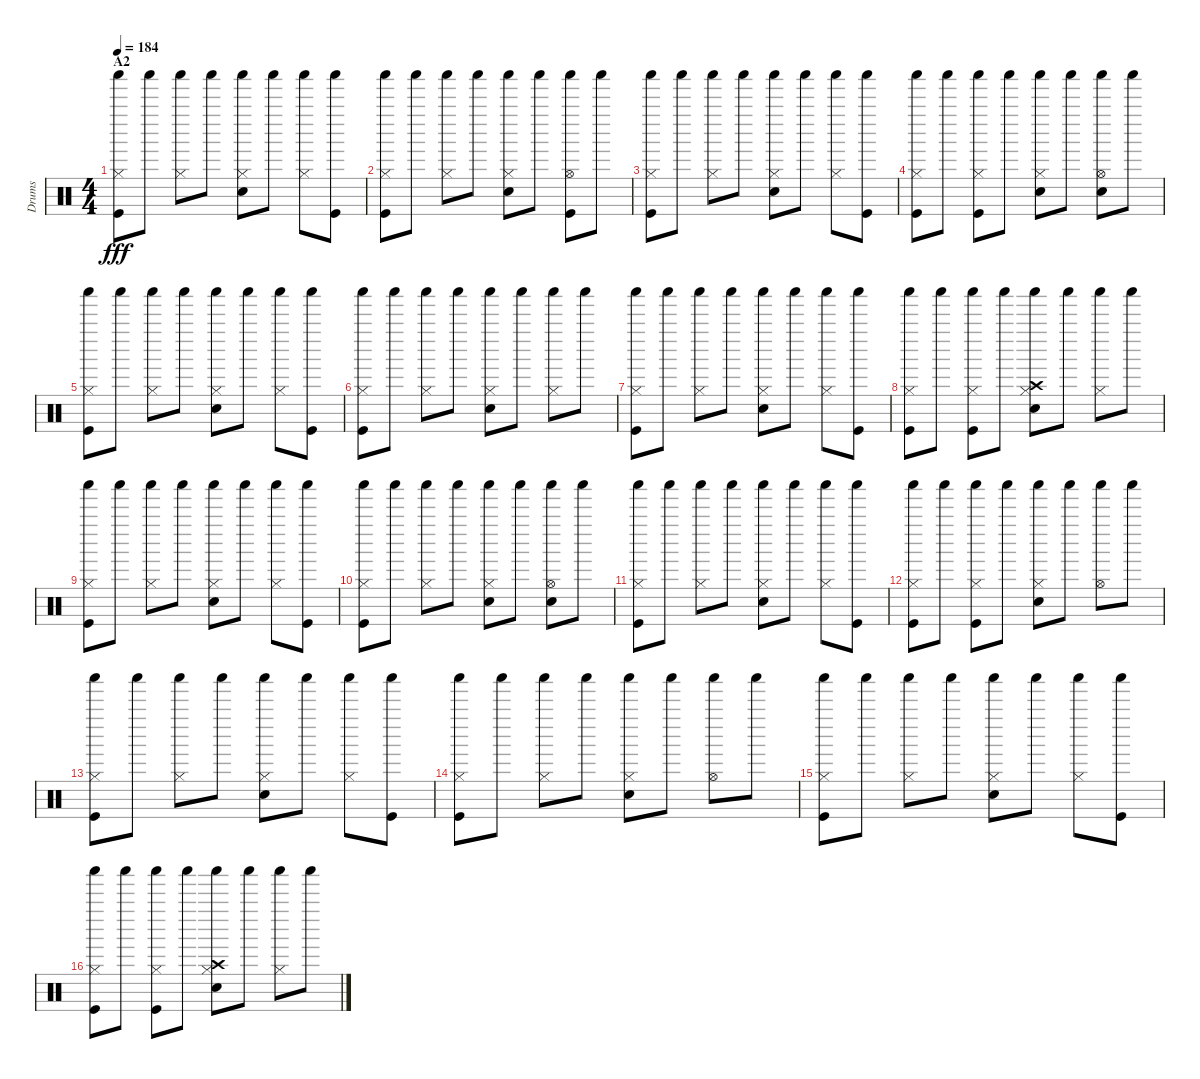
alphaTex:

\track ("Drums" "Drums") {instrument percussion}
\staff {score}
\articulation defaults
\ts (4 4)
\section ("" "A2")
\tempo 184
\clef neutral
\ks c
("Hi-Hat (closed)" "Shaker (hit)" "Kick (hit)").8{dy fff} "Shaker (hit)".8 ("Hi-Hat (closed)" "Shaker (hit)").8 "Shaker (hit)".8 ("Hi-Hat (closed)" "Shaker (hit)" "Snare (hit) 2").8 "Shaker (hit)".8 ("Hi-Hat (closed)" "Shaker (hit)").8 ("Shaker (hit)" "Kick (hit)").8 |
("Hi-Hat (closed)" "Shaker (hit)" "Kick (hit)").8 "Shaker (hit)".8 ("Hi-Hat (closed)" "Shaker (hit)").8 "Shaker (hit)".8 ("Hi-Hat (closed)" "Shaker (hit)" "Snare (hit) 2").8 "Shaker (hit)".8 ("Hi-Hat (open)" "Shaker (hit)" "Kick (hit)").8 "Shaker (hit)".8 |
("Hi-Hat (closed)" "Shaker (hit)" "Kick (hit)").8 "Shaker (hit)".8 ("Hi-Hat (closed)" "Shaker (hit)").8 "Shaker (hit)".8 ("Hi-Hat (closed)" "Shaker (hit)" "Snare (hit) 2").8 "Shaker (hit)".8 ("Hi-Hat (closed)" "Shaker (hit)").8 ("Shaker (hit)" "Kick (hit)").8 |
("Hi-Hat (closed)" "Shaker (hit)" "Kick (hit)").8 "Shaker (hit)".8 ("Hi-Hat (closed)" "Shaker (hit)" "Kick (hit)").8 "Shaker (hit)".8 ("Hi-Hat (closed)" "Shaker (hit)" "Snare (hit) 2").8 "Shaker (hit)".8 ("Hi-Hat (open)" "Shaker (hit)" "Snare (hit) 2").8 "Shaker (hit)".8 |
("Hi-Hat (closed)" "Shaker (hit)" "Kick (hit)").8 "Shaker (hit)".8 ("Hi-Hat (closed)" "Shaker (hit)").8 "Shaker (hit)".8 ("Hi-Hat (closed)" "Shaker (hit)" "Snare (hit) 2").8 "Shaker (hit)".8 ("Hi-Hat (closed)" "Shaker (hit)").8 ("Shaker (hit)" "Kick (hit)").8 |
("Hi-Hat (closed)" "Shaker (hit)" "Kick (hit)").8 "Shaker (hit)".8 ("Hi-Hat (closed)" "Shaker (hit)").8 "Shaker (hit)".8 ("Hi-Hat (closed)" "Shaker (hit)" "Snare (hit) 2").8 "Shaker (hit)".8 ("Hi-Hat (closed)" "Shaker (hit)").8 "Shaker (hit)".8 |
("Hi-Hat (closed)" "Shaker (hit)" "Kick (hit)").8 "Shaker (hit)".8 ("Hi-Hat (closed)" "Shaker (hit)").8 "Shaker (hit)".8 ("Hi-Hat (closed)" "Shaker (hit)" "Snare (hit) 2").8 "Shaker (hit)".8 ("Hi-Hat (closed)" "Shaker (hit)").8 ("Shaker (hit)" "Kick (hit)").8 |
("Hi-Hat (closed)" "Shaker (hit)" "Kick (hit)").8 "Shaker (hit)".8 ("Hi-Hat (closed)" "Shaker (hit)" "Kick (hit)").8 "Shaker (hit)".8 ("Hi-Hat (closed)" "Shaker (hit)" "Crash high (hit)" "Snare (hit) 2").8 "Shaker (hit)".8 ("Hi-Hat (closed)" "Shaker (hit)").8 "Shaker (hit)".8 |
("Hi-Hat (closed)" "Shaker (hit)" "Kick (hit)").8 "Shaker (hit)".8 ("Hi-Hat (closed)" "Shaker (hit)").8 "Shaker (hit)".8 ("Hi-Hat (closed)" "Shaker (hit)" "Snare (hit) 2").8 "Shaker (hit)".8 ("Hi-Hat (closed)" "Shaker (hit)").8 ("Shaker (hit)" "Kick (hit)").8 |
("Hi-Hat (closed)" "Shaker (hit)" "Kick (hit)").8 "Shaker (hit)".8 ("Hi-Hat (closed)" "Shaker (hit)").8 "Shaker (hit)".8 ("Hi-Hat (closed)" "Shaker (hit)" "Snare (hit) 2").8 "Shaker (hit)".8 ("Hi-Hat (open)" "Shaker (hit)" "Snare (hit) 2").8 "Shaker (hit)".8 |
("Hi-Hat (closed)" "Shaker (hit)" "Kick (hit)").8 "Shaker (hit)".8 ("Hi-Hat (closed)" "Shaker (hit)").8 "Shaker (hit)".8 ("Hi-Hat (closed)" "Shaker (hit)" "Snare (hit) 2").8 "Shaker (hit)".8 ("Hi-Hat (closed)" "Shaker (hit)").8 ("Shaker (hit)" "Kick (hit)").8 |
("Hi-Hat (closed)" "Shaker (hit)" "Kick (hit)").8 "Shaker (hit)".8 ("Hi-Hat (closed)" "Shaker (hit)" "Kick (hit)").8 "Shaker (hit)".8 ("Hi-Hat (closed)" "Shaker (hit)" "Snare (hit) 2").8 "Shaker (hit)".8 ("Hi-Hat (open)" "Shaker (hit)").8 "Shaker (hit)".8 |
("Hi-Hat (closed)" "Shaker (hit)" "Kick (hit)").8 "Shaker (hit)".8 ("Hi-Hat (closed)" "Shaker (hit)").8 "Shaker (hit)".8 ("Hi-Hat (closed)" "Shaker (hit)" "Snare (hit) 2").8 "Shaker (hit)".8 ("Hi-Hat (closed)" "Shaker (hit)").8 ("Shaker (hit)" "Kick (hit)").8 |
("Hi-Hat (closed)" "Shaker (hit)" "Kick (hit)").8 "Shaker (hit)".8 ("Hi-Hat (closed)" "Shaker (hit)").8 "Shaker (hit)".8 ("Hi-Hat (closed)" "Shaker (hit)" "Snare (hit) 2").8 "Shaker (hit)".8 ("Hi-Hat (open)" "Shaker (hit)").8 "Shaker (hit)".8 |
("Hi-Hat (closed)" "Shaker (hit)" "Kick (hit)").8 "Shaker (hit)".8 ("Hi-Hat (closed)" "Shaker (hit)").8 "Shaker (hit)".8 ("Hi-Hat (closed)" "Shaker (hit)" "Snare (hit) 2").8 "Shaker (hit)".8 ("Hi-Hat (closed)" "Shaker (hit)").8 ("Shaker (hit)" "Kick (hit)").8 |
("Hi-Hat (closed)" "Shaker (hit)" "Kick (hit)").8 "Shaker (hit)".8 ("Hi-Hat (closed)" "Shaker (hit)" "Kick (hit)").8 "Shaker (hit)".8 ("Hi-Hat (closed)" "Shaker (hit)" "Crash high (hit)" "Snare (hit) 2").8 "Shaker (hit)".8 ("Hi-Hat (closed)" "Shaker (hit)").8 "Shaker (hit)".8
